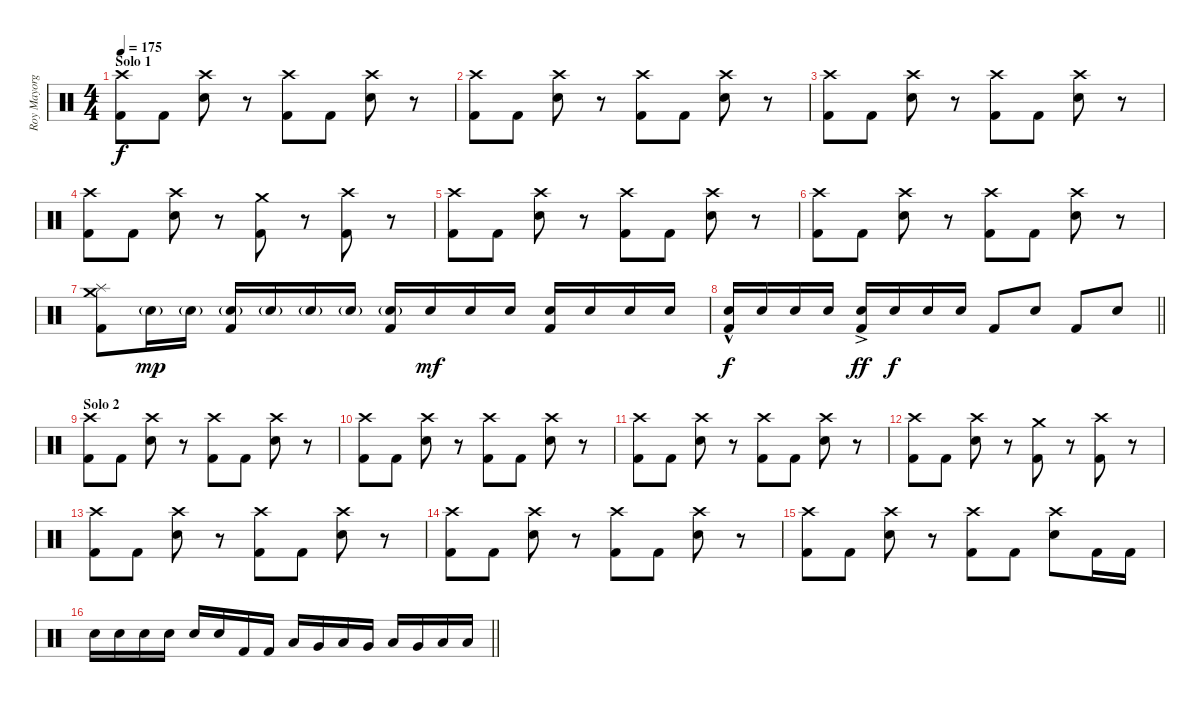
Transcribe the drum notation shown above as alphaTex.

\track ("Roy Mayorga" "Roy Mayorg") {instrument percussion}
\staff {score}
\articulation defaults
\ts (4 4)
\section ("" "Solo 1")
\tempo 175
\clef neutral
\ks c
("Crash high (hit)" "Kick (hit) 2").8{dy f} "Kick (hit) 2".8 ("Crash high (hit)" "Electric Snare (hit)").8 r.8 ("Crash high (hit)" "Kick (hit) 2").8 "Kick (hit) 2".8 ("Crash high (hit)" "Electric Snare (hit)").8 r.8 |
("Crash high (hit)" "Kick (hit) 2").8 "Kick (hit) 2".8 ("Crash high (hit)" "Electric Snare (hit)").8 r.8 ("Crash high (hit)" "Kick (hit) 2").8 "Kick (hit) 2".8 ("Crash high (hit)" "Electric Snare (hit)").8 r.8 |
("Crash high (hit)" "Kick (hit) 2").8 "Kick (hit) 2".8 ("Crash high (hit)" "Electric Snare (hit)").8 r.8 ("Crash high (hit)" "Kick (hit) 2").8 "Kick (hit) 2".8 ("Crash high (hit)" "Electric Snare (hit)").8 r.8 |
("Crash high (hit)" "Kick (hit) 2").8 "Kick (hit) 2".8 ("Crash high (hit)" "Electric Snare (hit)").8 r.8 ("Crash medium (hit)" "Kick (hit) 2").8 r.8 ("Crash high (hit)" "Kick (hit) 2").8 r.8 |
("Crash high (hit)" "Kick (hit) 2").8 "Kick (hit) 2".8 ("Crash high (hit)" "Electric Snare (hit)").8 r.8 ("Crash high (hit)" "Kick (hit) 2").8 "Kick (hit) 2".8 ("Crash high (hit)" "Electric Snare (hit)").8 r.8 |
("Crash high (hit)" "Kick (hit) 2").8 "Kick (hit) 2".8 ("Crash high (hit)" "Electric Snare (hit)").8 r.8 ("Crash high (hit)" "Kick (hit) 2").8 "Kick (hit) 2".8 ("Crash high (hit)" "Electric Snare (hit)").8 r.8 |
("Crash medium (hit)" "Splash (hit)" "Kick (hit) 2").8 "Electric Snare (hit)"{g}.16{dy mp} "Electric Snare (hit)"{g}.16 ("Electric Snare (hit)"{g} "Kick (hit) 2").16 "Electric Snare (hit)"{g}.16 "Electric Snare (hit)"{g}.16 "Electric Snare (hit)"{g}.16 ("Electric Snare (hit)"{g} "Kick (hit) 2").16 "Electric Snare (hit)".16{dy mf} "Electric Snare (hit)".16 "Electric Snare (hit)".16 ("Electric Snare (hit)" "Kick (hit) 2").16 "Electric Snare (hit)".16 "Electric Snare (hit)".16 "Electric Snare (hit)".16 |
\barLineRight lightlight
("Electric Snare (hit)"{hac} "Kick (hit) 2").16{dy f} "Electric Snare (hit)".16 "Electric Snare (hit)".16 "Electric Snare (hit)".16 ("Electric Snare (hit)"{ac} "Kick (hit) 2").16{dy ff} "Electric Snare (hit)".16{dy f} "Electric Snare (hit)".16 "Electric Snare (hit)".16 "Kick (hit) 2".8 "Electric Snare (hit)".8 "Kick (hit) 2".8 "Electric Snare (hit)".8 |
\section ("" "Solo 2")
("Crash high (hit)" "Kick (hit) 2").8 "Kick (hit) 2".8 ("Crash high (hit)" "Electric Snare (hit)").8 r.8 ("Crash high (hit)" "Kick (hit) 2").8 "Kick (hit) 2".8 ("Crash high (hit)" "Electric Snare (hit)").8 r.8 |
("Crash high (hit)" "Kick (hit) 2").8 "Kick (hit) 2".8 ("Crash high (hit)" "Electric Snare (hit)").8 r.8 ("Crash high (hit)" "Kick (hit) 2").8 "Kick (hit) 2".8 ("Crash high (hit)" "Electric Snare (hit)").8 r.8 |
("Crash high (hit)" "Kick (hit) 2").8 "Kick (hit) 2".8 ("Crash high (hit)" "Electric Snare (hit)").8 r.8 ("Crash high (hit)" "Kick (hit) 2").8 "Kick (hit) 2".8 ("Crash high (hit)" "Electric Snare (hit)").8 r.8 |
("Crash high (hit)" "Kick (hit) 2").8 "Kick (hit) 2".8 ("Crash high (hit)" "Electric Snare (hit)").8 r.8 ("Crash medium (hit)" "Kick (hit) 2").8 r.8 ("Crash high (hit)" "Kick (hit) 2").8 r.8 |
("Crash high (hit)" "Kick (hit) 2").8 "Kick (hit) 2".8 ("Crash high (hit)" "Electric Snare (hit)").8 r.8 ("Crash high (hit)" "Kick (hit) 2").8 "Kick (hit) 2".8 ("Crash high (hit)" "Electric Snare (hit)").8 r.8 |
("Crash high (hit)" "Kick (hit) 2").8 "Kick (hit) 2".8 ("Crash high (hit)" "Electric Snare (hit)").8 r.8 ("Crash high (hit)" "Kick (hit) 2").8 "Kick (hit) 2".8 ("Crash high (hit)" "Electric Snare (hit)").8 r.8 |
("Crash high (hit)" "Kick (hit) 2").8 "Kick (hit) 2".8 ("Crash high (hit)" "Electric Snare (hit)").8 r.8 ("Crash high (hit)" "Kick (hit) 2").8 "Kick (hit) 2".8 ("Crash high (hit)" "Electric Snare (hit)").8 "Kick (hit) 2".16 "Kick (hit) 2".16 |
\barLineRight lightlight "Electric Snare (hit)".16 "Electric Snare (hit)".16 "Electric Snare (hit)".16 "Electric Snare (hit)".16 "Electric Snare (hit)".16 "Electric Snare (hit)".16 "Kick (hit) 2".16 "Kick (hit) 2".16 "Low Floor Tom (hit)".16 "Very Low Tom (hit)".16 "Low Tom (hit)".16 "Very Low Tom (hit)".16 "Low Tom (hit)".16 "Very Low Tom (hit)".16 "Low Floor Tom (hit)".16 "Low Floor Tom (hit)".16
